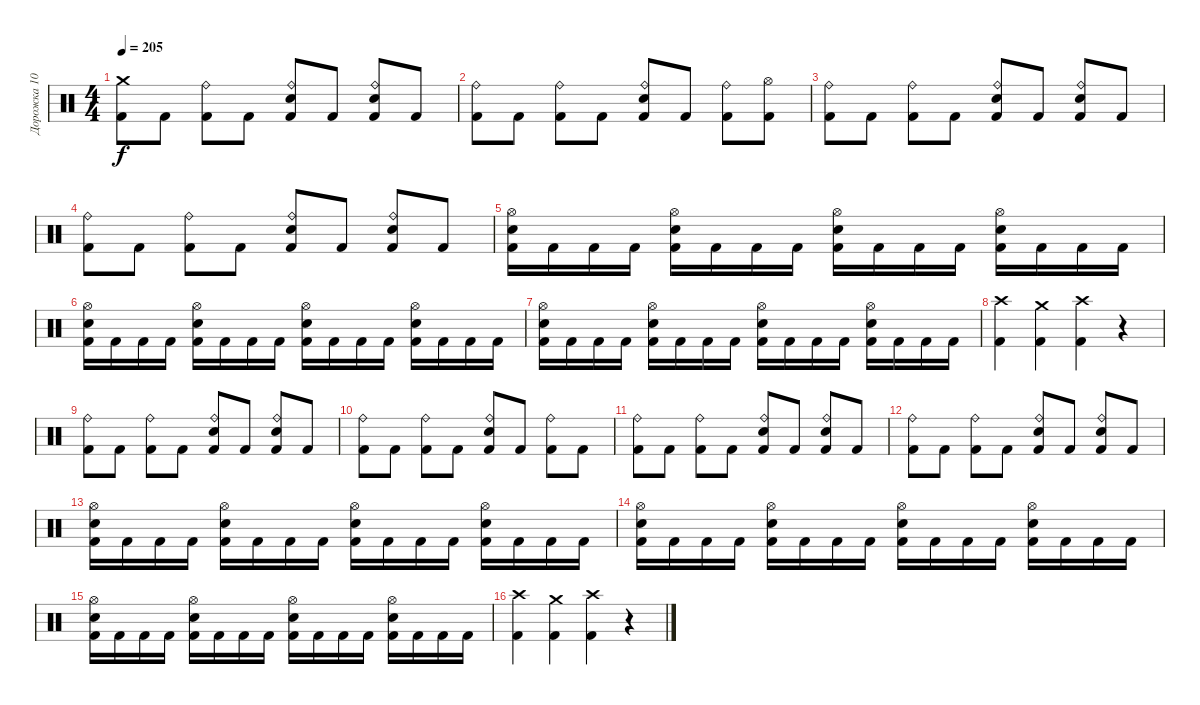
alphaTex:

\track ("Дорожка 10" "Дорожка 10") {instrument percussion}
\staff {score}
\articulation defaults
\ts (4 4)
\tempo 205
\clef neutral
\ks c
("Crash medium (hit)" "Kick (hit) 2").8{dy f} "Kick (hit) 2".8 ("Ride (bell)" "Kick (hit) 2").8 "Kick (hit) 2".8 ("Ride (bell)" "Electric Snare (hit)" "Kick (hit) 2").8 "Kick (hit) 2".8 ("Ride (bell)" "Electric Snare (hit)" "Kick (hit) 2").8 "Kick (hit) 2".8 |
("Ride (bell)" "Kick (hit) 2").8 "Kick (hit) 2".8 ("Ride (bell)" "Kick (hit) 2").8 "Kick (hit) 2".8 ("Ride (bell)" "Electric Snare (hit)" "Kick (hit) 2").8 "Kick (hit) 2".8 ("Ride (bell)" "Kick (hit) 2").8 ("Hi-Hat (open)" "Kick (hit) 2").8 |
("Ride (bell)" "Kick (hit) 2").8 "Kick (hit) 2".8 ("Ride (bell)" "Kick (hit) 2").8 "Kick (hit) 2".8 ("Ride (bell)" "Electric Snare (hit)" "Kick (hit) 2").8 "Kick (hit) 2".8 ("Ride (bell)" "Electric Snare (hit)" "Kick (hit) 2").8 "Kick (hit) 2".8 |
("Ride (bell)" "Kick (hit) 2").8 "Kick (hit) 2".8 ("Ride (bell)" "Kick (hit) 2").8 "Kick (hit) 2".8 ("Ride (bell)" "Electric Snare (hit)" "Kick (hit) 2").8 "Kick (hit) 2".8 ("Ride (bell)" "Electric Snare (hit)" "Kick (hit) 2").8 "Kick (hit) 2".8 |
("Hi-Hat (open)" "Electric Snare (hit)" "Kick (hit) 2").16 "Kick (hit) 2".16 "Kick (hit) 2".16 "Kick (hit) 2".16 ("Hi-Hat (open)" "Electric Snare (hit)" "Kick (hit) 2").16 "Kick (hit) 2".16 "Kick (hit) 2".16 "Kick (hit) 2".16 ("Hi-Hat (open)" "Electric Snare (hit)" "Kick (hit) 2").16 "Kick (hit) 2".16 "Kick (hit) 2".16 "Kick (hit) 2".16 ("Hi-Hat (open)" "Electric Snare (hit)" "Kick (hit) 2").16 "Kick (hit) 2".16 "Kick (hit) 2".16 "Kick (hit) 2".16 |
("Hi-Hat (open)" "Electric Snare (hit)" "Kick (hit) 2").16 "Kick (hit) 2".16 "Kick (hit) 2".16 "Kick (hit) 2".16 ("Hi-Hat (open)" "Electric Snare (hit)" "Kick (hit) 2").16 "Kick (hit) 2".16 "Kick (hit) 2".16 "Kick (hit) 2".16 ("Hi-Hat (open)" "Electric Snare (hit)" "Kick (hit) 2").16 "Kick (hit) 2".16 "Kick (hit) 2".16 "Kick (hit) 2".16 ("Hi-Hat (open)" "Electric Snare (hit)" "Kick (hit) 2").16 "Kick (hit) 2".16 "Kick (hit) 2".16 "Kick (hit) 2".16 |
("Hi-Hat (open)" "Electric Snare (hit)" "Kick (hit) 2").16 "Kick (hit) 2".16 "Kick (hit) 2".16 "Kick (hit) 2".16 ("Hi-Hat (open)" "Electric Snare (hit)" "Kick (hit) 2").16 "Kick (hit) 2".16 "Kick (hit) 2".16 "Kick (hit) 2".16 ("Hi-Hat (open)" "Electric Snare (hit)" "Kick (hit) 2").16 "Kick (hit) 2".16 "Kick (hit) 2".16 "Kick (hit) 2".16 ("Hi-Hat (open)" "Electric Snare (hit)" "Kick (hit) 2").16 "Kick (hit) 2".16 "Kick (hit) 2".16 "Kick (hit) 2".16 |
("Crash high (hit)" "Kick (hit) 2").4 ("Crash medium (hit)" "Kick (hit) 2").4 ("Crash high (hit)" "Kick (hit) 2").4 r.4 |
("Ride (bell)" "Kick (hit) 2").8 "Kick (hit) 2".8 ("Ride (bell)" "Kick (hit) 2").8 "Kick (hit) 2".8 ("Ride (bell)" "Electric Snare (hit)" "Kick (hit) 2").8 "Kick (hit) 2".8 ("Ride (bell)" "Electric Snare (hit)" "Kick (hit) 2").8 "Kick (hit) 2".8 |
("Ride (bell)" "Kick (hit) 2").8 "Kick (hit) 2".8 ("Ride (bell)" "Kick (hit) 2").8 "Kick (hit) 2".8 ("Ride (bell)" "Electric Snare (hit)" "Kick (hit) 2").8 "Kick (hit) 2".8 ("Ride (bell)" "Kick (hit) 2").8 "Kick (hit) 2".8 |
("Ride (bell)" "Kick (hit) 2").8 "Kick (hit) 2".8 ("Ride (bell)" "Kick (hit) 2").8 "Kick (hit) 2".8 ("Ride (bell)" "Electric Snare (hit)" "Kick (hit) 2").8 "Kick (hit) 2".8 ("Ride (bell)" "Electric Snare (hit)" "Kick (hit) 2").8 "Kick (hit) 2".8 |
("Ride (bell)" "Kick (hit) 2").8 "Kick (hit) 2".8 ("Ride (bell)" "Kick (hit) 2").8 "Kick (hit) 2".8 ("Ride (bell)" "Electric Snare (hit)" "Kick (hit) 2").8 "Kick (hit) 2".8 ("Ride (bell)" "Electric Snare (hit)" "Kick (hit) 2").8 "Kick (hit) 2".8 |
("Hi-Hat (open)" "Electric Snare (hit)" "Kick (hit) 2").16 "Kick (hit) 2".16 "Kick (hit) 2".16 "Kick (hit) 2".16 ("Hi-Hat (open)" "Electric Snare (hit)" "Kick (hit) 2").16 "Kick (hit) 2".16 "Kick (hit) 2".16 "Kick (hit) 2".16 ("Hi-Hat (open)" "Electric Snare (hit)" "Kick (hit) 2").16 "Kick (hit) 2".16 "Kick (hit) 2".16 "Kick (hit) 2".16 ("Hi-Hat (open)" "Electric Snare (hit)" "Kick (hit) 2").16 "Kick (hit) 2".16 "Kick (hit) 2".16 "Kick (hit) 2".16 |
("Hi-Hat (open)" "Electric Snare (hit)" "Kick (hit) 2").16 "Kick (hit) 2".16 "Kick (hit) 2".16 "Kick (hit) 2".16 ("Hi-Hat (open)" "Electric Snare (hit)" "Kick (hit) 2").16 "Kick (hit) 2".16 "Kick (hit) 2".16 "Kick (hit) 2".16 ("Hi-Hat (open)" "Electric Snare (hit)" "Kick (hit) 2").16 "Kick (hit) 2".16 "Kick (hit) 2".16 "Kick (hit) 2".16 ("Hi-Hat (open)" "Electric Snare (hit)" "Kick (hit) 2").16 "Kick (hit) 2".16 "Kick (hit) 2".16 "Kick (hit) 2".16 |
("Hi-Hat (open)" "Electric Snare (hit)" "Kick (hit) 2").16 "Kick (hit) 2".16 "Kick (hit) 2".16 "Kick (hit) 2".16 ("Hi-Hat (open)" "Electric Snare (hit)" "Kick (hit) 2").16 "Kick (hit) 2".16 "Kick (hit) 2".16 "Kick (hit) 2".16 ("Hi-Hat (open)" "Electric Snare (hit)" "Kick (hit) 2").16 "Kick (hit) 2".16 "Kick (hit) 2".16 "Kick (hit) 2".16 ("Hi-Hat (open)" "Electric Snare (hit)" "Kick (hit) 2").16 "Kick (hit) 2".16 "Kick (hit) 2".16 "Kick (hit) 2".16 |
("Crash high (hit)" "Kick (hit) 2").4 ("Crash medium (hit)" "Kick (hit) 2").4 ("Crash high (hit)" "Kick (hit) 2").4 r.4
